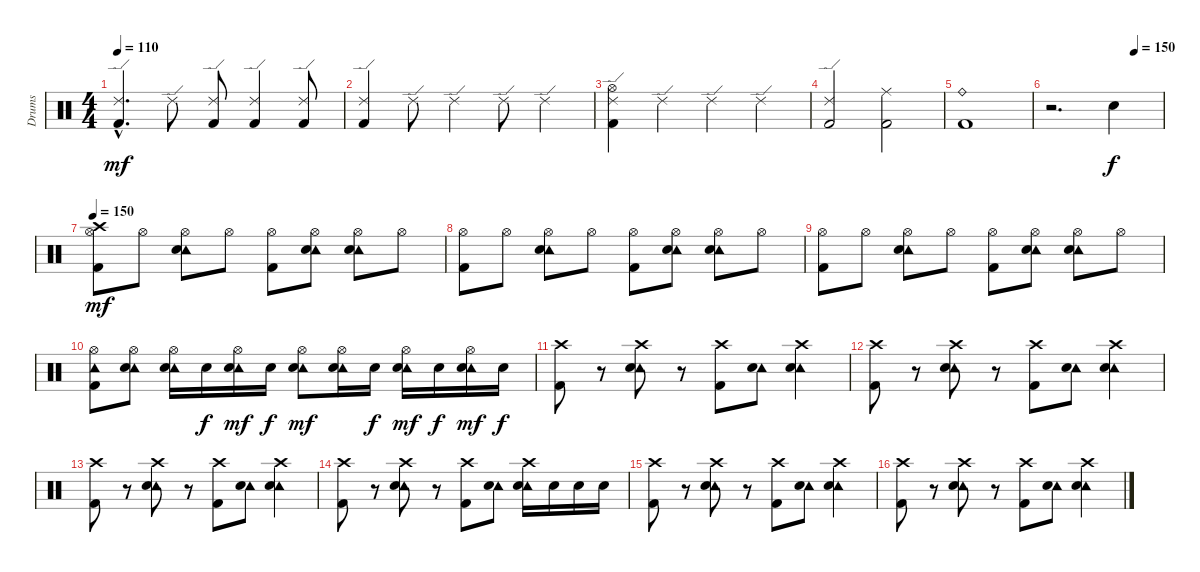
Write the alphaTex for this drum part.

\track ("Drums" "Drums") {instrument percussion}
\staff {score}
\articulation defaults
\ts (4 4)
\tempo 110
\clef neutral
\ks c
("Ride (edge) 2"{hac} "Kick (hit) 2"{hac}).4{d dy mf} "Ride (edge) 2".8 ("Ride (edge) 2" "Kick (hit) 2").8 ("Ride (edge) 2" "Kick (hit) 2").4 ("Ride (edge) 2" "Kick (hit) 2").8 |
("Ride (edge) 2" "Kick (hit) 2").4 "Ride (edge) 2".8 "Ride (edge) 2".4 "Ride (edge) 2".8 "Ride (edge) 2".4 |
("Hi-Hat (open)" "Ride (edge) 2" "Kick (hit) 2").4 "Ride (edge) 2".4 "Ride (edge) 2".4 "Ride (edge) 2".4 |
("Ride (edge) 2" "Kick (hit) 2").2 ("Ride (middle)" "Kick (hit) 2").2 |
("Ride (bell)" "Kick (hit) 2").1 |
\tempo (150 0.75)
r.2{d} "Snare (hit) 2".4{dy f} |
\tempo 150
("Crash high (hit)" "Hi-Hat (open)" "Kick (hit) 2").8{dy mf} "Hi-Hat (open)".8 ("Tambourine (hit)" "Hi-Hat (open)" "Snare (hit) 2").8 "Hi-Hat (open)".8 ("Hi-Hat (open)" "Kick (hit) 2").8 ("Tambourine (hit)" "Hi-Hat (open)" "Snare (hit) 2").8 ("Tambourine (hit)" "Hi-Hat (open)" "Snare (hit) 2").8 "Hi-Hat (open)".8 |
("Hi-Hat (open)" "Kick (hit) 2").8 "Hi-Hat (open)".8 ("Tambourine (hit)" "Hi-Hat (open)" "Snare (hit) 2").8 "Hi-Hat (open)".8 ("Hi-Hat (open)" "Kick (hit) 2").8 ("Tambourine (hit)" "Hi-Hat (open)" "Snare (hit) 2").8 ("Tambourine (hit)" "Hi-Hat (open)" "Snare (hit) 2").8 "Hi-Hat (open)".8 |
("Hi-Hat (open)" "Kick (hit) 2").8 "Hi-Hat (open)".8 ("Tambourine (hit)" "Hi-Hat (open)" "Snare (hit) 2").8 "Hi-Hat (open)".8 ("Hi-Hat (open)" "Kick (hit) 2").8 ("Tambourine (hit)" "Hi-Hat (open)" "Snare (hit) 2").8 ("Tambourine (hit)" "Hi-Hat (open)" "Snare (hit) 2").8 "Hi-Hat (open)".8 |
("Tambourine (hit)" "Hi-Hat (open)" "Kick (hit) 2").8 ("Tambourine (hit)" "Hi-Hat (open)" "Snare (hit) 2").8 ("Tambourine (hit)" "Hi-Hat (open)" "Snare (hit) 2").16 "Snare (hit) 2".16{dy f} ("Tambourine (hit)" "Hi-Hat (open)" "Snare (hit) 2").16{dy mf} "Snare (hit) 2".16{dy f} ("Tambourine (hit)" "Hi-Hat (open)" "Snare (hit) 2").8{dy mf} ("Tambourine (hit)" "Hi-Hat (open)" "Snare (hit) 2").16 "Snare (hit) 2".16{dy f} ("Tambourine (hit)" "Hi-Hat (open)" "Snare (hit) 2").16{dy mf} "Snare (hit) 2".16{dy f} ("Tambourine (hit)" "Hi-Hat (open)" "Snare (hit) 2").16{dy mf} "Snare (hit) 2".16{dy f} |
("Crash high (hit)" "Kick (hit) 2").8 r.8 ("Tambourine (hit)" "Crash high (hit)" "Snare (hit) 2").8 r.8 ("Crash high (hit)" "Kick (hit) 2").8 ("Tambourine (hit)" "Snare (hit) 2").8 ("Tambourine (hit)" "Crash high (hit)" "Snare (hit) 2").4 |
("Crash high (hit)" "Kick (hit) 2").8 r.8 ("Tambourine (hit)" "Crash high (hit)" "Snare (hit) 2").8 r.8 ("Crash high (hit)" "Kick (hit) 2").8 ("Tambourine (hit)" "Snare (hit) 2").8 ("Tambourine (hit)" "Crash high (hit)" "Snare (hit) 2").4 |
("Crash high (hit)" "Kick (hit) 2").8 r.8 ("Tambourine (hit)" "Crash high (hit)" "Snare (hit) 2").8 r.8 ("Crash high (hit)" "Kick (hit) 2").8 ("Tambourine (hit)" "Snare (hit) 2").8 ("Tambourine (hit)" "Crash high (hit)" "Snare (hit) 2").4 |
("Crash high (hit)" "Kick (hit) 2").8 r.8 ("Tambourine (hit)" "Crash high (hit)" "Snare (hit) 2").8 r.8 ("Crash high (hit)" "Kick (hit) 2").8 ("Tambourine (hit)" "Snare (hit) 2").8 ("Tambourine (hit)" "Crash high (hit)" "Snare (hit) 2").16 "Snare (hit) 2".16 "Snare (hit) 2".16 "Snare (hit) 2".16 |
("Crash high (hit)" "Kick (hit) 2").8{volume 6} r.8 ("Tambourine (hit)" "Crash high (hit)" "Snare (hit) 2").8 r.8 ("Crash high (hit)" "Kick (hit) 2").8 ("Tambourine (hit)" "Snare (hit) 2").8 ("Tambourine (hit)" "Crash high (hit)" "Snare (hit) 2").4 |
("Crash high (hit)" "Kick (hit) 2").8 r.8 ("Tambourine (hit)" "Crash high (hit)" "Snare (hit) 2").8 r.8 ("Crash high (hit)" "Kick (hit) 2").8 ("Tambourine (hit)" "Snare (hit) 2").8 ("Tambourine (hit)" "Crash high (hit)" "Snare (hit) 2").4
